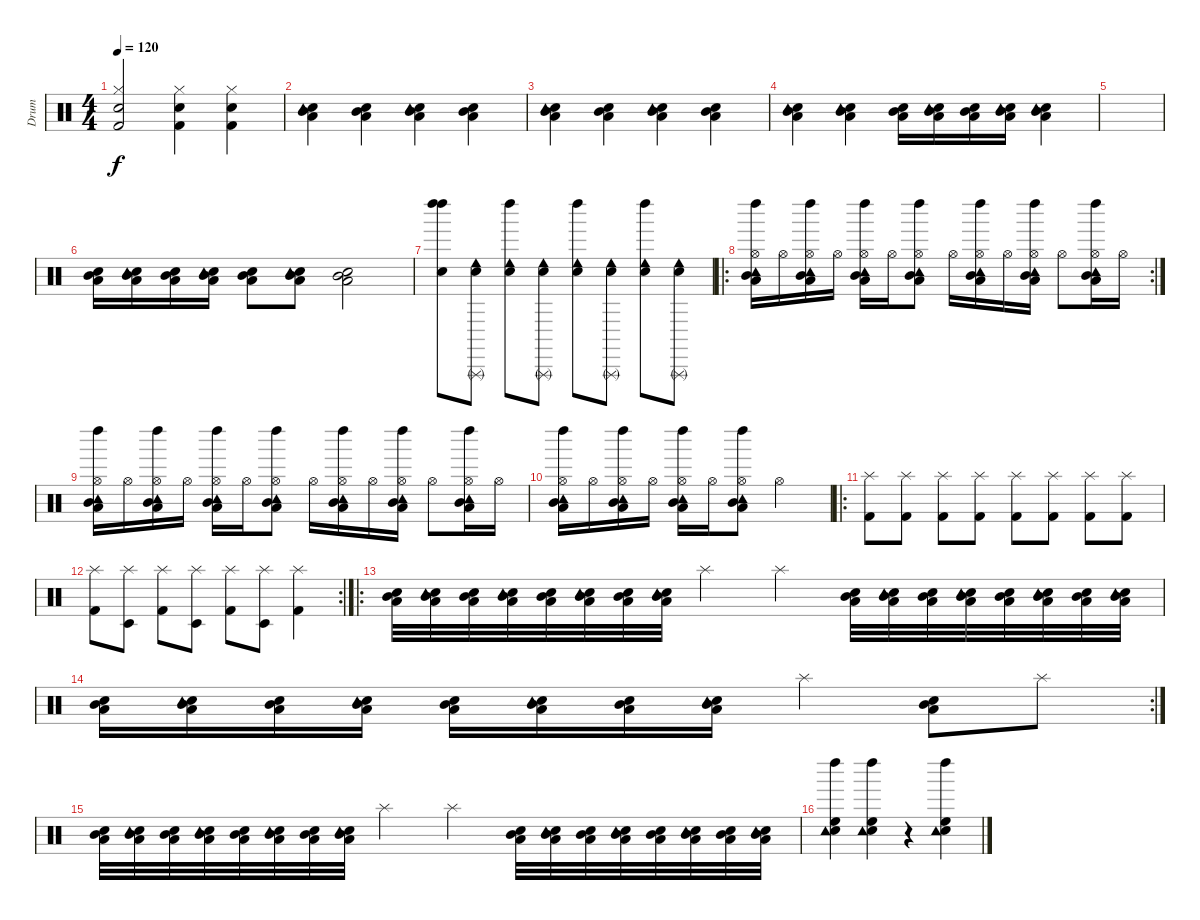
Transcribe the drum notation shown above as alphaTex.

\track ("Drum" "Drum") {instrument percussion}
\staff {score}
\articulation defaults
\ts (4 4)
\tempo 120
\clef neutral
\ks c
("Snare (hit) 2" "Hi-Hat (closed)" "Kick (hit) 2").2{dy f} ("Electric Snare (hit)" "Hi-Hat (closed)" "Kick (hit) 2").4 ("Electric Snare (hit)" "Hi-Hat (closed)" "Kick (hit) 2").4 |
("Electric Snare (hit)" "Low Tom (hit)" "Tambourine (hit)" "Mid Tom (hit)").4 ("Electric Snare (hit)" "Low Tom (hit)" "Mid Tom (hit)").4 ("Electric Snare (hit)" "Low Tom (hit)" "Tambourine (hit)" "Mid Tom (hit)").4 ("Electric Snare (hit)" "Low Tom (hit)" "Mid Tom (hit)").4 |
("Electric Snare (hit)" "Low Tom (hit)" "Tambourine (hit)" "Mid Tom (hit)").4 ("Electric Snare (hit)" "Low Tom (hit)" "Mid Tom (hit)").4 ("Electric Snare (hit)" "Low Tom (hit)" "Tambourine (hit)" "Mid Tom (hit)").4 ("Electric Snare (hit)" "Low Tom (hit)" "Mid Tom (hit)").4 |
("Electric Snare (hit)" "Low Tom (hit)" "Tambourine (hit)" "Mid Tom (hit)").4 ("Electric Snare (hit)" "Low Tom (hit)" "Tambourine (hit)" "Mid Tom (hit)").4 ("Electric Snare (hit)" "Low Tom (hit)" "Mid Tom (hit)").16 ("Electric Snare (hit)" "Low Tom (hit)" "Tambourine (hit)" "Mid Tom (hit)").16 ("Electric Snare (hit)" "Low Tom (hit)" "Mid Tom (hit)").16 ("Electric Snare (hit)" "Low Tom (hit)" "Tambourine (hit)" "Mid Tom (hit)").16 ("Electric Snare (hit)" "Low Tom (hit)" "Tambourine (hit)" "Mid Tom (hit)").4 |
|
("Electric Snare (hit)" "Low Tom (hit)" "Mid Tom (hit)").16 ("Electric Snare (hit)" "Low Tom (hit)" "Tambourine (hit)" "Mid Tom (hit)").16 ("Electric Snare (hit)" "Low Tom (hit)" "Mid Tom (hit)").16 ("Electric Snare (hit)" "Low Tom (hit)" "Tambourine (hit)" "Mid Tom (hit)").16 ("Electric Snare (hit)" "Low Tom (hit)" "Mid Tom (hit)").8 ("Electric Snare (hit)" "Low Tom (hit)" "Tambourine (hit)" "Mid Tom (hit)").8 ("Electric Snare (hit)" "Low Tom (hit)" "Mid Tom (hit)").2 |
("Left Maraca (hit)" "Left Maraca (hit)" "Electric Snare (hit)").8 ("Triangle (rnute)" "Cowbell low (hit)" "Electric Snare (hit)").8 ("Left Maraca (hit)" "Cowbell low (hit)" "Electric Snare (hit)").8 ("Triangle (rnute)" "Cowbell low (hit)" "Electric Snare (hit)").8 ("Left Maraca (hit)" "Cowbell low (hit)" "Electric Snare (hit)").8 ("Triangle (rnute)" "Cowbell low (hit)" "Electric Snare (hit)").8 ("Left Maraca (hit)" "Cowbell low (hit)" "Electric Snare (hit)").8 ("Triangle (rnute)" "Cowbell low (hit)" "Electric Snare (hit)").8 |
\ro
\rc 2
("Hi-Hat (open)" "Left Maraca (hit)" "Low Tom (hit)" "Tambourine (hit)" "Mid Tom (hit)").16 "Hi-Hat (open)".16 ("Hi-Hat (open)" "Left Maraca (hit)" "Low Tom (hit)" "Tambourine (hit)" "Mid Tom (hit)").16 "Hi-Hat (open)".16 ("Hi-Hat (open)" "Left Maraca (hit)" "Low Tom (hit)" "Tambourine (hit)" "Mid Tom (hit)").16 "Hi-Hat (open)".16 ("Hi-Hat (open)" "Left Maraca (hit)" "Low Tom (hit)" "Tambourine (hit)" "Mid Tom (hit)").8 "Hi-Hat (open)".16 ("Hi-Hat (open)" "Left Maraca (hit)" "Low Tom (hit)" "Tambourine (hit)" "Mid Tom (hit)").16 "Hi-Hat (open)".16 ("Hi-Hat (open)" "Left Maraca (hit)" "Low Tom (hit)" "Tambourine (hit)" "Mid Tom (hit)").16 "Hi-Hat (open)".8 ("Hi-Hat (open)" "Left Maraca (hit)" "Low Tom (hit)" "Tambourine (hit)" "Mid Tom (hit)").16 "Hi-Hat (open)".16 |
("Hi-Hat (open)" "Left Maraca (hit)" "Low Tom (hit)" "Tambourine (hit)" "Mid Tom (hit)").16 "Hi-Hat (open)".16 ("Hi-Hat (open)" "Left Maraca (hit)" "Low Tom (hit)" "Tambourine (hit)" "Mid Tom (hit)").16 "Hi-Hat (open)".16 ("Hi-Hat (open)" "Left Maraca (hit)" "Low Tom (hit)" "Tambourine (hit)" "Mid Tom (hit)").16 "Hi-Hat (open)".16 ("Hi-Hat (open)" "Left Maraca (hit)" "Low Tom (hit)" "Tambourine (hit)" "Mid Tom (hit)").8 "Hi-Hat (open)".16 ("Hi-Hat (open)" "Left Maraca (hit)" "Low Tom (hit)" "Tambourine (hit)" "Mid Tom (hit)").16 "Hi-Hat (open)".16 ("Hi-Hat (open)" "Left Maraca (hit)" "Low Tom (hit)" "Tambourine (hit)" "Mid Tom (hit)").16 "Hi-Hat (open)".8 ("Hi-Hat (open)" "Left Maraca (hit)" "Low Tom (hit)" "Tambourine (hit)" "Mid Tom (hit)").16 "Hi-Hat (open)".16 |
("Hi-Hat (open)" "Left Maraca (hit)" "Low Tom (hit)" "Tambourine (hit)" "Mid Tom (hit)").16 "Hi-Hat (open)".16 ("Hi-Hat (open)" "Left Maraca (hit)" "Low Tom (hit)" "Tambourine (hit)" "Mid Tom (hit)").16 "Hi-Hat (open)".16 ("Hi-Hat (open)" "Left Maraca (hit)" "Low Tom (hit)" "Tambourine (hit)" "Mid Tom (hit)").16 "Hi-Hat (open)".16 ("Hi-Hat (open)" "Left Maraca (hit)" "Low Tom (hit)" "Tambourine (hit)" "Mid Tom (hit)").8 "Hi-Hat (open)".2 |
\ro
("Kick (hit) 2" "Splash (hit)").8 ("Kick (hit) 2" "Splash (hit)").8 ("Kick (hit) 2" "Splash (hit)").8 ("Splash (hit)" "Kick (hit) 2").8 ("Kick (hit) 2" "Splash (hit)").8 ("Splash (hit)" "Kick (hit) 2").8 ("Kick (hit) 2" "Splash (hit)").8 ("Splash (hit)" "Kick (hit) 2").8 |
\rc 2
("Kick (hit) 2" "Splash (hit)").8 ("Timbale low (hit)" "Splash (hit)").8 ("Kick (hit) 2" "Splash (hit)").8 ("Timbale low (hit)" "Splash (hit)").8 ("Kick (hit) 2" "Splash (hit)").8 ("Timbale low (hit)" "Splash (hit)").8 ("Kick (hit) 2" "Splash (hit)").4 |
\ro
("Electric Snare (hit)" "Low Tom (hit)" "Mid Tom (hit)").32 ("Electric Snare (hit)" "Low Tom (hit)" "Tambourine (hit)" "Mid Tom (hit)").32 ("Electric Snare (hit)" "Low Tom (hit)" "Mid Tom (hit)").32 ("Electric Snare (hit)" "Low Tom (hit)" "Tambourine (hit)" "Mid Tom (hit)").32 ("Electric Snare (hit)" "Low Tom (hit)" "Mid Tom (hit)").32 ("Electric Snare (hit)" "Low Tom (hit)" "Tambourine (hit)" "Mid Tom (hit)").32 ("Electric Snare (hit)" "Low Tom (hit)" "Mid Tom (hit)").32 ("Electric Snare (hit)" "Low Tom (hit)" "Tambourine (hit)" "Mid Tom (hit)").32 "Splash (hit)".4 "Splash (hit)".4 ("Electric Snare (hit)" "Low Tom (hit)" "Mid Tom (hit)").32 ("Electric Snare (hit)" "Low Tom (hit)" "Tambourine (hit)" "Mid Tom (hit)").32 ("Electric Snare (hit)" "Low Tom (hit)" "Mid Tom (hit)").32 ("Electric Snare (hit)" "Low Tom (hit)" "Tambourine (hit)" "Mid Tom (hit)").32 ("Electric Snare (hit)" "Low Tom (hit)" "Mid Tom (hit)").32 ("Electric Snare (hit)" "Low Tom (hit)" "Tambourine (hit)" "Mid Tom (hit)").32 ("Electric Snare (hit)" "Low Tom (hit)" "Mid Tom (hit)").32 ("Electric Snare (hit)" "Low Tom (hit)" "Tambourine (hit)" "Mid Tom (hit)").32 |
\rc 2
("Electric Snare (hit)" "Low Tom (hit)" "Mid Tom (hit)").16 ("Electric Snare (hit)" "Low Tom (hit)" "Tambourine (hit)" "Mid Tom (hit)").16 ("Electric Snare (hit)" "Low Tom (hit)" "Mid Tom (hit)").16 ("Electric Snare (hit)" "Low Tom (hit)" "Tambourine (hit)" "Mid Tom (hit)").16 ("Electric Snare (hit)" "Low Tom (hit)" "Mid Tom (hit)").16 ("Electric Snare (hit)" "Low Tom (hit)" "Tambourine (hit)" "Mid Tom (hit)").16 ("Electric Snare (hit)" "Low Tom (hit)" "Mid Tom (hit)").16 ("Electric Snare (hit)" "Low Tom (hit)" "Tambourine (hit)" "Mid Tom (hit)").16 "Splash (hit)".4 ("Electric Snare (hit)" "Low Tom (hit)" "Mid Tom (hit)").8 "Splash (hit)".8 |
("Electric Snare (hit)" "Low Tom (hit)" "Mid Tom (hit)").32 ("Electric Snare (hit)" "Low Tom (hit)" "Tambourine (hit)" "Mid Tom (hit)").32 ("Electric Snare (hit)" "Low Tom (hit)" "Mid Tom (hit)").32 ("Electric Snare (hit)" "Low Tom (hit)" "Tambourine (hit)" "Mid Tom (hit)").32 ("Electric Snare (hit)" "Low Tom (hit)" "Mid Tom (hit)").32 ("Electric Snare (hit)" "Low Tom (hit)" "Tambourine (hit)" "Mid Tom (hit)").32 ("Electric Snare (hit)" "Low Tom (hit)" "Mid Tom (hit)").32 ("Electric Snare (hit)" "Low Tom (hit)" "Tambourine (hit)" "Mid Tom (hit)").32 "Splash (hit)".4 "Splash (hit)".4 ("Electric Snare (hit)" "Low Tom (hit)" "Mid Tom (hit)").32 ("Electric Snare (hit)" "Low Tom (hit)" "Tambourine (hit)" "Mid Tom (hit)").32 ("Electric Snare (hit)" "Low Tom (hit)" "Mid Tom (hit)").32 ("Electric Snare (hit)" "Low Tom (hit)" "Tambourine (hit)" "Mid Tom (hit)").32 ("Electric Snare (hit)" "Low Tom (hit)" "Mid Tom (hit)").32 ("Electric Snare (hit)" "Low Tom (hit)" "Tambourine (hit)" "Mid Tom (hit)").32 ("Electric Snare (hit)" "Low Tom (hit)" "Mid Tom (hit)").32 ("Electric Snare (hit)" "Low Tom (hit)" "Tambourine (hit)" "Mid Tom (hit)").32 |
("Electric Snare (hit)" "High Floor Tom (hit)" "Tambourine (hit)" "Left Maraca (hit)").4 ("Electric Snare (hit)" "High Floor Tom (hit)" "Tambourine (hit)" "Left Maraca (hit)").4 r.4 ("Electric Snare (hit)" "High Floor Tom (hit)" "Tambourine (hit)" "Left Maraca (hit)").4
